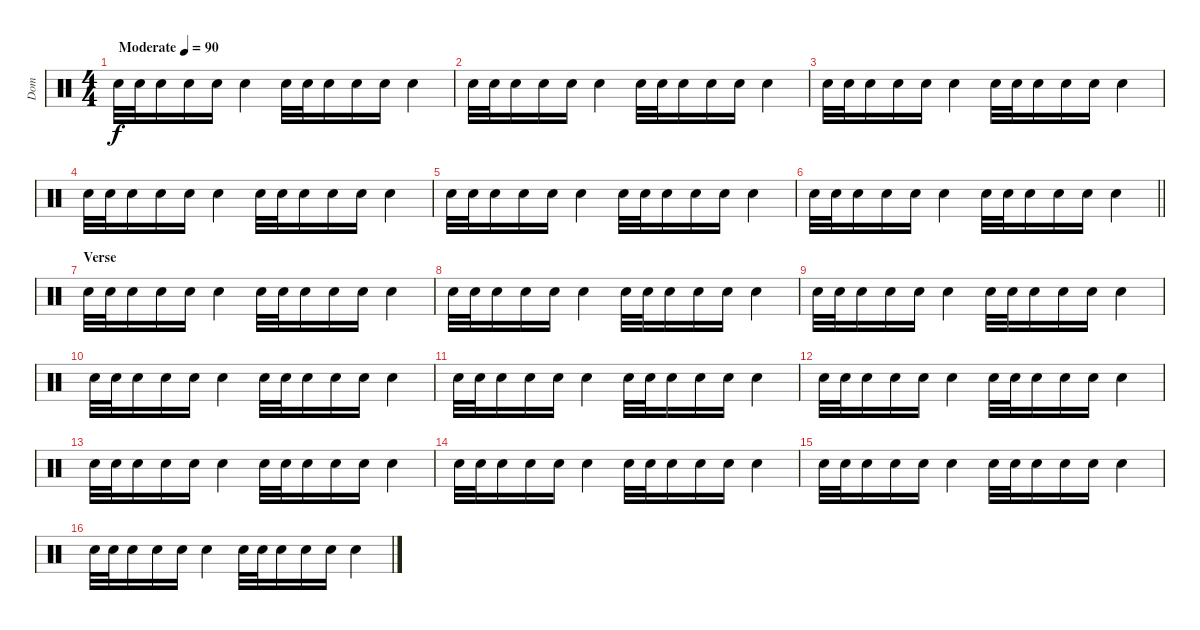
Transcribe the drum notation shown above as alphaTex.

\track ("Dom" "Dom") {instrument percussion}
\staff {score}
\articulation defaults
\ts (4 4)
\tempo (90 "Moderate")
\clef neutral
\ks c "Electric Snare (hit)".32{dy f} "Electric Snare (hit)".32 "Electric Snare (hit)".16 "Electric Snare (hit)".16 "Electric Snare (hit)".16 "Electric Snare (hit)".4 "Electric Snare (hit)".32 "Electric Snare (hit)".32 "Electric Snare (hit)".16 "Electric Snare (hit)".16 "Electric Snare (hit)".16 "Electric Snare (hit)".4
|
"Electric Snare (hit)".32 "Electric Snare (hit)".32 "Electric Snare (hit)".16 "Electric Snare (hit)".16 "Electric Snare (hit)".16 "Electric Snare (hit)".4 "Electric Snare (hit)".32 "Electric Snare (hit)".32 "Electric Snare (hit)".16 "Electric Snare (hit)".16 "Electric Snare (hit)".16 "Electric Snare (hit)".4 |
"Electric Snare (hit)".32 "Electric Snare (hit)".32 "Electric Snare (hit)".16 "Electric Snare (hit)".16 "Electric Snare (hit)".16 "Electric Snare (hit)".4 "Electric Snare (hit)".32 "Electric Snare (hit)".32 "Electric Snare (hit)".16 "Electric Snare (hit)".16 "Electric Snare (hit)".16 "Electric Snare (hit)".4 |
"Electric Snare (hit)".32 "Electric Snare (hit)".32 "Electric Snare (hit)".16 "Electric Snare (hit)".16 "Electric Snare (hit)".16 "Electric Snare (hit)".4 "Electric Snare (hit)".32 "Electric Snare (hit)".32 "Electric Snare (hit)".16 "Electric Snare (hit)".16 "Electric Snare (hit)".16 "Electric Snare (hit)".4 |
"Electric Snare (hit)".32 "Electric Snare (hit)".32 "Electric Snare (hit)".16 "Electric Snare (hit)".16 "Electric Snare (hit)".16 "Electric Snare (hit)".4 "Electric Snare (hit)".32 "Electric Snare (hit)".32 "Electric Snare (hit)".16 "Electric Snare (hit)".16 "Electric Snare (hit)".16 "Electric Snare (hit)".4 |
\barLineRight lightlight "Electric Snare (hit)".32 "Electric Snare (hit)".32 "Electric Snare (hit)".16 "Electric Snare (hit)".16 "Electric Snare (hit)".16 "Electric Snare (hit)".4 "Electric Snare (hit)".32 "Electric Snare (hit)".32 "Electric Snare (hit)".16 "Electric Snare (hit)".16 "Electric Snare (hit)".16 "Electric Snare (hit)".4
|
\section ("" "Verse")
"Electric Snare (hit)".32 "Electric Snare (hit)".32 "Electric Snare (hit)".16 "Electric Snare (hit)".16 "Electric Snare (hit)".16 "Electric Snare (hit)".4 "Electric Snare (hit)".32 "Electric Snare (hit)".32 "Electric Snare (hit)".16 "Electric Snare (hit)".16 "Electric Snare (hit)".16 "Electric Snare (hit)".4 |
"Electric Snare (hit)".32 "Electric Snare (hit)".32 "Electric Snare (hit)".16 "Electric Snare (hit)".16 "Electric Snare (hit)".16 "Electric Snare (hit)".4 "Electric Snare (hit)".32 "Electric Snare (hit)".32 "Electric Snare (hit)".16 "Electric Snare (hit)".16 "Electric Snare (hit)".16 "Electric Snare (hit)".4 |
"Electric Snare (hit)".32 "Electric Snare (hit)".32 "Electric Snare (hit)".16 "Electric Snare (hit)".16 "Electric Snare (hit)".16 "Electric Snare (hit)".4 "Electric Snare (hit)".32 "Electric Snare (hit)".32 "Electric Snare (hit)".16 "Electric Snare (hit)".16 "Electric Snare (hit)".16 "Electric Snare (hit)".4 |
"Electric Snare (hit)".32 "Electric Snare (hit)".32 "Electric Snare (hit)".16 "Electric Snare (hit)".16 "Electric Snare (hit)".16 "Electric Snare (hit)".4 "Electric Snare (hit)".32 "Electric Snare (hit)".32 "Electric Snare (hit)".16 "Electric Snare (hit)".16 "Electric Snare (hit)".16 "Electric Snare (hit)".4 |
"Electric Snare (hit)".32 "Electric Snare (hit)".32 "Electric Snare (hit)".16 "Electric Snare (hit)".16 "Electric Snare (hit)".16 "Electric Snare (hit)".4 "Electric Snare (hit)".32 "Electric Snare (hit)".32 "Electric Snare (hit)".16 "Electric Snare (hit)".16 "Electric Snare (hit)".16 "Electric Snare (hit)".4 |
"Electric Snare (hit)".32 "Electric Snare (hit)".32 "Electric Snare (hit)".16 "Electric Snare (hit)".16 "Electric Snare (hit)".16 "Electric Snare (hit)".4 "Electric Snare (hit)".32 "Electric Snare (hit)".32 "Electric Snare (hit)".16 "Electric Snare (hit)".16 "Electric Snare (hit)".16 "Electric Snare (hit)".4 |
"Electric Snare (hit)".32 "Electric Snare (hit)".32 "Electric Snare (hit)".16 "Electric Snare (hit)".16 "Electric Snare (hit)".16 "Electric Snare (hit)".4 "Electric Snare (hit)".32 "Electric Snare (hit)".32 "Electric Snare (hit)".16 "Electric Snare (hit)".16 "Electric Snare (hit)".16 "Electric Snare (hit)".4 |
"Electric Snare (hit)".32 "Electric Snare (hit)".32 "Electric Snare (hit)".16 "Electric Snare (hit)".16 "Electric Snare (hit)".16 "Electric Snare (hit)".4 "Electric Snare (hit)".32 "Electric Snare (hit)".32 "Electric Snare (hit)".16 "Electric Snare (hit)".16 "Electric Snare (hit)".16 "Electric Snare (hit)".4 |
"Electric Snare (hit)".32 "Electric Snare (hit)".32 "Electric Snare (hit)".16 "Electric Snare (hit)".16 "Electric Snare (hit)".16 "Electric Snare (hit)".4 "Electric Snare (hit)".32 "Electric Snare (hit)".32 "Electric Snare (hit)".16 "Electric Snare (hit)".16 "Electric Snare (hit)".16 "Electric Snare (hit)".4 |
"Electric Snare (hit)".32 "Electric Snare (hit)".32 "Electric Snare (hit)".16 "Electric Snare (hit)".16 "Electric Snare (hit)".16 "Electric Snare (hit)".4 "Electric Snare (hit)".32 "Electric Snare (hit)".32 "Electric Snare (hit)".16 "Electric Snare (hit)".16 "Electric Snare (hit)".16 "Electric Snare (hit)".4
